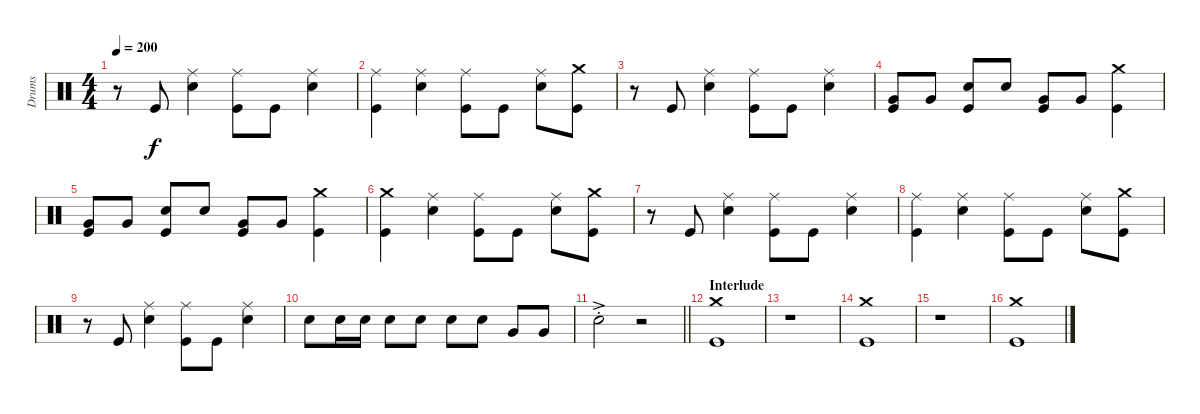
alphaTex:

\track ("Drums" "Drums") {instrument percussion}
\staff {score}
\articulation defaults
\ts (4 4)
\tempo 200
\clef neutral
\ks c
r.8{dy f} "Kick (hit)".8 ("Snare (hit) 2" "Ride (middle)").4 ("Kick (hit)" "Ride (middle)").8 "Kick (hit)".8 ("Snare (hit) 2" "Ride (middle)").4 |
("Kick (hit)" "Ride (middle)").4 ("Snare (hit) 2" "Ride (middle)").4 ("Kick (hit)" "Ride (middle)").8 "Kick (hit)".8 ("Snare (hit) 2" "Ride (middle)").8 ("Kick (hit)" "Crash medium (hit)").8 |
r.8 "Kick (hit)".8 ("Snare (hit) 2" "Ride (middle)").4 ("Kick (hit)" "Ride (middle)").8 "Kick (hit)".8 ("Snare (hit) 2" "Ride (middle)").4 |
("Kick (hit)" "Very Low Tom (hit)").8 "Very Low Tom (hit)".8 ("Kick (hit)" "Snare (hit) 2").8 "Snare (hit) 2".8 ("Kick (hit)" "Very Low Tom (hit)").8 "Very Low Tom (hit)".8 ("Kick (hit)" "Crash medium (hit)").4 |
("Kick (hit)" "Very Low Tom (hit)").8 "Very Low Tom (hit)".8 ("Kick (hit)" "Snare (hit) 2").8 "Snare (hit) 2".8 ("Kick (hit)" "Very Low Tom (hit)").8 "Very Low Tom (hit)".8 ("Kick (hit)" "Crash medium (hit)").4 |
("Kick (hit)" "Crash medium (hit)").4 ("Snare (hit) 2" "Ride (middle)").4 ("Kick (hit)" "Ride (middle)").8 "Kick (hit)".8 ("Snare (hit) 2" "Ride (middle)").8 ("Kick (hit)" "Crash medium (hit)").8 |
r.8 "Kick (hit)".8 ("Snare (hit) 2" "Ride (middle)").4 ("Kick (hit)" "Ride (middle)").8 "Kick (hit)".8 ("Snare (hit) 2" "Ride (middle)").4 |
("Kick (hit)" "Ride (middle)").4 ("Snare (hit) 2" "Ride (middle)").4 ("Kick (hit)" "Ride (middle)").8 "Kick (hit)".8 ("Snare (hit) 2" "Ride (middle)").8 ("Kick (hit)" "Crash medium (hit)").8 |
r.8 "Kick (hit)".8 ("Snare (hit) 2" "Ride (middle)").4 ("Kick (hit)" "Ride (middle)").8 "Kick (hit)".8 ("Snare (hit) 2" "Ride (middle)").4 |
"Snare (hit) 2".8 "Snare (hit) 2".16 "Snare (hit) 2".16 "Snare (hit) 2".8 "Snare (hit) 2".8 "Snare (hit) 2".8 "Snare (hit) 2".8 "Very Low Tom (hit)".8 "Very Low Tom (hit)".8 |
\barLineRight lightlight "Snare (hit) 2"{ac st}.2
r.2 |
\section ("" "Interlude")
("Kick (hit)" "Crash medium (hit)").1 |
r.1 |
("Kick (hit)" "Crash medium (hit)").1 |
r.1 |
("Kick (hit)" "Crash medium (hit)").1
